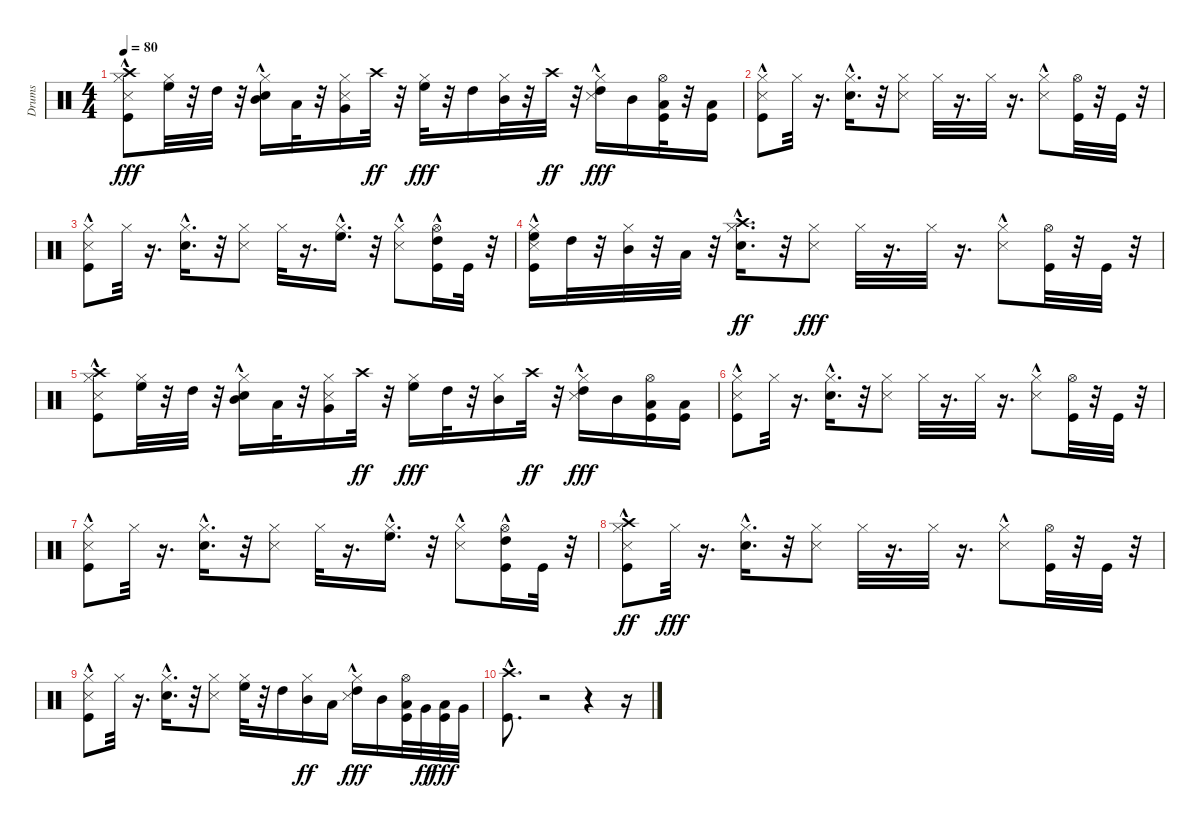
\track ("Drums" "Drums") {instrument percussion}
\staff {score}
\articulation defaults
\ts (4 4)
\tempo 80
\clef neutral
\ks c
("Snare (side stick) 3" "Kick (hit)"{hac} "Hi-Hat (closed)" "Crash high (hit)"{hac}).8{dy fff} ("Hi-Hat (closed)" "High Floor Tom (hit)").32 r.32 "High Tom (hit)".32 r.32 ("Electric Snare (hit)"{hac} "Hi-Hat (closed)" "Mid Tom (hit)").16 "Low Tom (hit)".32 r.32 ("Snare (side stick) 3" "Hi-Hat (closed)" "Very Low Tom (hit)").16 "Crash high (hit)".32{dy ff} r.32 ("Hi-Hat (closed)" "High Floor Tom (hit)").32{dy fff} r.32 "High Tom (hit)".16 ("Hi-Hat (closed)" "Mid Tom (hit)").32 r.32 "Crash high (hit)".32{dy ff} r.32 ("High Tom (hit)" "Snare (side stick) 3"{hac} "Hi-Hat (closed)").16{dy fff} "Mid Tom (hit)".16 ("Hi-Hat (open)" "Kick (hit)" "Low Tom (hit)").32 r.32 ("Kick (hit)" "Low Tom (hit)").16 |
("Snare (side stick) 3" "Kick (hit)"{hac} "Hi-Hat (closed)").8 "Hi-Hat (closed)".32 r.16{d} ("Electric Snare (hit)"{hac} "Hi-Hat (closed)").16{d} r.32 ("Snare (side stick) 3" "Hi-Hat (closed)").8 "Hi-Hat (closed)".32 r.16{d} "Hi-Hat (closed)".32 r.16{d} ("Hi-Hat (closed)" "Snare (side stick) 3"{hac}).8 ("Hi-Hat (open)" "Kick (hit)").32 r.32 "Kick (hit)".32 r.32 |
("Snare (side stick) 3" "Kick (hit)"{hac} "Hi-Hat (closed)").8 "Hi-Hat (closed)".32 r.16{d} ("Electric Snare (hit)"{hac} "Hi-Hat (closed)").16{d} r.32 ("Snare (side stick) 3" "Hi-Hat (closed)").8 "Hi-Hat (closed)".32 r.16{d} ("Hi-Hat (closed)" "High Floor Tom (hit)"{hac}).16{d} r.32 ("Snare (side stick) 3"{hac} "Hi-Hat (closed)").8 ("High Tom (hit)"{hac} "Hi-Hat (open)" "Kick (hit)").16 "Kick (hit)".32 r.32 |
("Snare (side stick) 3" "Kick (hit)"{hac} "Hi-Hat (closed)" "High Floor Tom (hit)").16 "High Tom (hit)".32 r.32 ("Hi-Hat (closed)" "Mid Tom (hit)").32 r.32 "Low Tom (hit)".32 r.32 ("Electric Snare (hit)"{hac} "Hi-Hat (closed)" "Crash high (hit)").16{d dy ff} r.32 ("Snare (side stick) 3" "Hi-Hat (closed)").8{dy fff} "Hi-Hat (closed)".32 r.16{d} "Hi-Hat (closed)".32 r.16{d} ("Snare (side stick) 3"{hac} "Hi-Hat (closed)").8 ("Hi-Hat (open)" "Kick (hit)").32 r.32 "Kick (hit)".32 r.32 |
("Snare (side stick) 3" "Kick (hit)"{hac} "Hi-Hat (closed)" "Crash high (hit)"{hac}).8 ("Hi-Hat (closed)" "High Floor Tom (hit)").32 r.32 "High Tom (hit)".32 r.32 ("Mid Tom (hit)" "Electric Snare (hit)"{hac} "Hi-Hat (closed)").16 "Low Tom (hit)".32 r.32 ("Snare (side stick) 3" "Hi-Hat (closed)" "Very Low Tom (hit)").16 "Crash high (hit)".32{dy ff} r.32 ("Hi-Hat (closed)" "High Floor Tom (hit)").16{dy fff} "High Tom (hit)".32 r.32 ("Mid Tom (hit)" "Hi-Hat (closed)").16 "Crash high (hit)".32{dy ff} r.32 ("Snare (side stick) 3"{hac} "Hi-Hat (closed)" "High Tom (hit)").16{dy fff} "Mid Tom (hit)".16 ("Low Tom (hit)" "Hi-Hat (open)" "Kick (hit)").16 ("Kick (hit)" "Low Tom (hit)").16 |
("Snare (side stick) 3" "Kick (hit)"{hac} "Hi-Hat (closed)").8 "Hi-Hat (closed)".32 r.16{d} ("Hi-Hat (closed)" "Electric Snare (hit)"{hac}).16{d} r.32 ("Snare (side stick) 3" "Hi-Hat (closed)").8 "Hi-Hat (closed)".32 r.16{d} "Hi-Hat (closed)".32 r.16{d} ("Snare (side stick) 3"{hac} "Hi-Hat (closed)").8 ("Hi-Hat (open)" "Kick (hit)").32 r.32 "Kick (hit)".32 r.32 |
("Snare (side stick) 3" "Kick (hit)"{hac} "Hi-Hat (closed)").8 "Hi-Hat (closed)".32 r.16{d} ("Hi-Hat (closed)" "Electric Snare (hit)"{hac}).16{d} r.32 ("Snare (side stick) 3" "Hi-Hat (closed)").8 "Hi-Hat (closed)".32 r.16{d} ("Hi-Hat (closed)" "High Floor Tom (hit)"{hac}).16{d} r.32 ("Hi-Hat (closed)" "Snare (side stick) 3"{hac}).8 ("Hi-Hat (open)" "Kick (hit)" "High Tom (hit)"{hac}).16 "Kick (hit)".32 r.32 |
("Snare (side stick) 3" "Kick (hit)"{hac} "Hi-Hat (closed)" "Crash high (hit)"{hac}).8{dy ff} "Hi-Hat (closed)".32{dy fff} r.16{d} ("Hi-Hat (closed)" "Electric Snare (hit)"{hac}).16{d} r.32 ("Snare (side stick) 3" "Hi-Hat (closed)").8 "Hi-Hat (closed)".32 r.16{d} "Hi-Hat (closed)".32 r.16{d} ("Hi-Hat (closed)" "Snare (side stick) 3"{hac}).8 ("Hi-Hat (open)" "Kick (hit)").32 r.32 "Kick (hit)".32 r.32 |
("Snare (side stick) 3" "Kick (hit)"{hac} "Hi-Hat (closed)").8 "Hi-Hat (closed)".32 r.16{d} ("Hi-Hat (closed)" "Electric Snare (hit)"{hac}).16{d} r.32 ("Snare (side stick) 3" "Hi-Hat (closed)").8 ("Hi-Hat (closed)" "High Floor Tom (hit)").32 r.32 "High Tom (hit)".16 ("Hi-Hat (closed)" "Mid Tom (hit)").16{dy ff} "Low Tom (hit)".16 ("High Tom (hit)" "Snare (side stick) 3"{hac} "Hi-Hat (closed)").16{dy fff} "Mid Tom (hit)".16 ("Hi-Hat (open)" "Kick (hit)" "Low Tom (hit)").32 "Very Low Tom (hit)".32{dy ff} ("Low Floor Tom (hit)" "Kick (hit)").32{dy fff} "Very Low Tom (hit)".32 |
("Crash high (hit)"{hac} "Kick (hit)"{hac}).8{d} r.2 r.4 r.16
